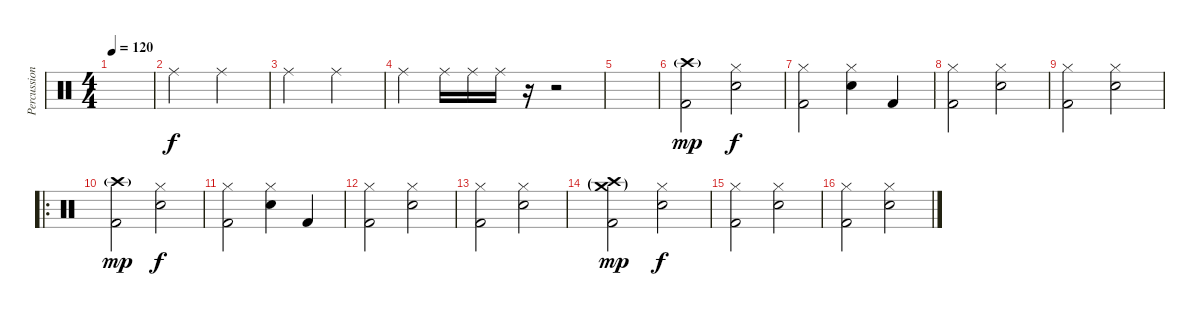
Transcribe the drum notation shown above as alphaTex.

\track ("Percussion" "Percussion") {instrument percussion}
\staff {score}
\articulation defaults
\ts (4 4)
\tempo 120
\clef neutral
\ks c
|
"Ride (middle)".2 "Ride (middle)".2 |
"Ride (middle)".2 "Ride (middle)".2 |
"Ride (middle)".4 "Ride (middle)".16 "Ride (middle)".16 "Ride (middle)".16 r.16 r.2 |
|
("Crash high (hit)"{g} "Kick (hit) 2").2{dy mp} ("Hi-Hat (closed)" "Electric Snare (hit)").2{dy f} |
("Hi-Hat (closed)" "Kick (hit) 2").2 ("Hi-Hat (closed)" "Electric Snare (hit)").4 "Kick (hit) 2".4 |
("Hi-Hat (closed)" "Kick (hit) 2").2 ("Hi-Hat (closed)" "Electric Snare (hit)").2 |
("Hi-Hat (closed)" "Kick (hit) 2").2 ("Hi-Hat (closed)" "Electric Snare (hit)").2 |
\ro
("Crash high (hit)"{g} "Kick (hit) 2").2{dy mp} ("Hi-Hat (closed)" "Electric Snare (hit)").2{dy f} |
("Hi-Hat (closed)" "Kick (hit) 2").2 ("Hi-Hat (closed)" "Electric Snare (hit)").4 "Kick (hit) 2".4 |
("Hi-Hat (closed)" "Kick (hit) 2").2 ("Hi-Hat (closed)" "Electric Snare (hit)").2 |
("Hi-Hat (closed)" "Kick (hit) 2").2 ("Hi-Hat (closed)" "Electric Snare (hit)").2 |
("Crash high (hit)"{g} "Crash medium (hit)"{g} "Kick (hit) 2").2{dy mp} ("Hi-Hat (closed)" "Electric Snare (hit)").2{dy f} |
("Hi-Hat (closed)" "Kick (hit) 2").2 ("Hi-Hat (closed)" "Electric Snare (hit)").2 |
("Hi-Hat (closed)" "Kick (hit) 2").2 ("Hi-Hat (closed)" "Electric Snare (hit)").2
